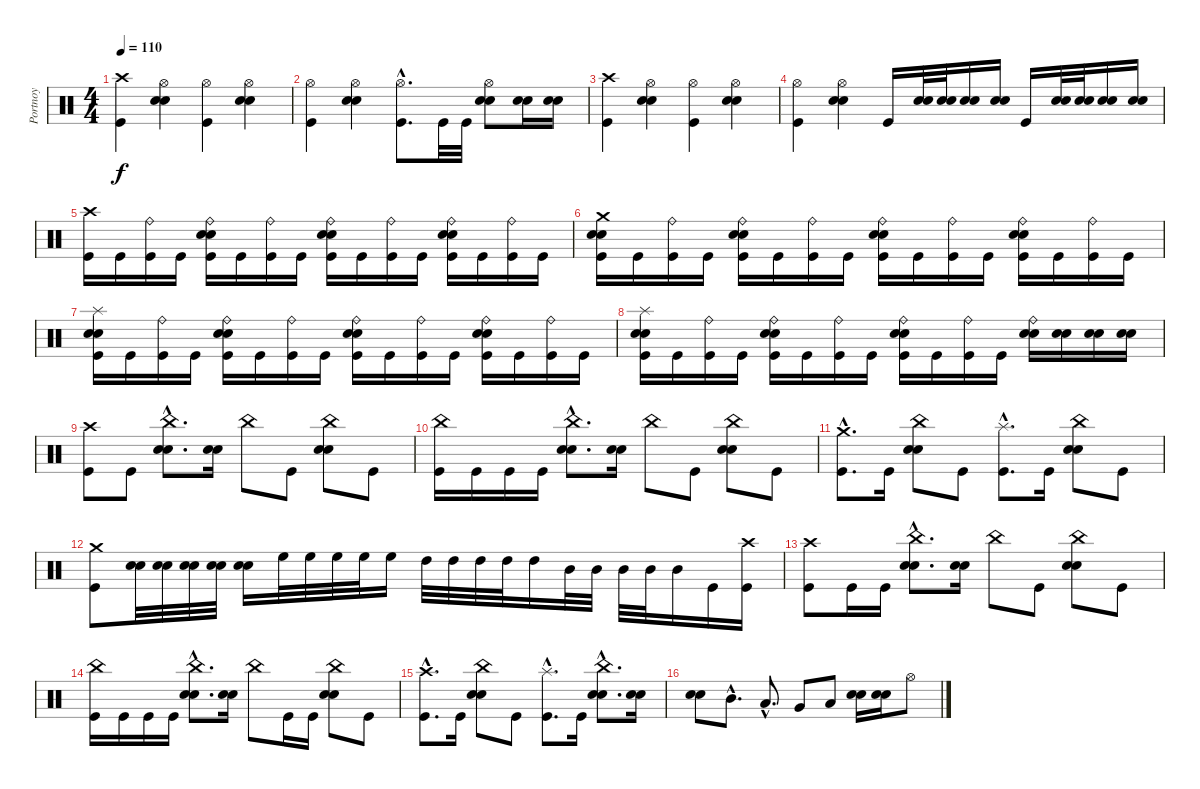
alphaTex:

\track ("Portnoy" "Portnoy") {instrument percussion}
\staff {score}
\articulation defaults
\ts (4 4)
\tempo 110
\clef neutral
\ks c
("Crash high (hit)" "Kick (hit)").4{dy f} ("Hi-Hat (open)" "Snare (hit) 2" "Electric Snare (hit)").4 ("Hi-Hat (open)" "Kick (hit)").4 ("Hi-Hat (open)" "Snare (hit) 2" "Electric Snare (hit)").4 |
("Hi-Hat (open)" "Kick (hit)").4 ("Hi-Hat (open)" "Snare (hit) 2" "Electric Snare (hit)").4 ("Hi-Hat (open)"{hac} "Kick (hit)"{hac}).8{d} "Kick (hit)".32 "Kick (hit)".32 ("Hi-Hat (open)" "Snare (hit) 2" "Electric Snare (hit)").8 ("Snare (hit) 2" "Electric Snare (hit)").16 ("Snare (hit) 2" "Electric Snare (hit)").16 |
("Crash high (hit)" "Kick (hit)").4 ("Hi-Hat (open)" "Snare (hit) 2" "Electric Snare (hit)").4 ("Hi-Hat (open)" "Kick (hit)").4 ("Hi-Hat (open)" "Snare (hit) 2" "Electric Snare (hit)").4 |
("Hi-Hat (open)" "Kick (hit)").4 ("Hi-Hat (open)" "Snare (hit) 2" "Electric Snare (hit)").4 "Kick (hit)".16 ("Snare (hit) 2" "Electric Snare (hit)").32 ("Snare (hit) 2" "Electric Snare (hit)").32 ("Snare (hit) 2" "Electric Snare (hit)").16 ("Snare (hit) 2" "Electric Snare (hit)").16 "Kick (hit)".16 ("Snare (hit) 2" "Electric Snare (hit)").32 ("Snare (hit) 2" "Electric Snare (hit)").32 ("Snare (hit) 2" "Electric Snare (hit)").16 ("Snare (hit) 2" "Electric Snare (hit)").16 |
("Crash high (hit)" "Kick (hit)").16 "Kick (hit)".16 ("Ride (bell)" "Kick (hit)").16 "Kick (hit)".16 ("Ride (bell)" "Snare (hit) 2" "Electric Snare (hit)" "Kick (hit)").16 "Kick (hit)".16 ("Ride (bell)" "Kick (hit)").16 "Kick (hit)".16 ("Ride (bell)" "Snare (hit) 2" "Electric Snare (hit)" "Kick (hit)").16 "Kick (hit)".16 ("Ride (bell)" "Kick (hit)").16 "Kick (hit)".16 ("Ride (bell)" "Snare (hit) 2" "Electric Snare (hit)" "Kick (hit)").16 "Kick (hit)".16 ("Ride (bell)" "Kick (hit)").16 "Kick (hit)".16 |
("Crash medium (hit)" "Snare (hit) 2" "Electric Snare (hit)" "Kick (hit)").16 "Kick (hit)".16 ("Ride (bell)" "Kick (hit)").16 "Kick (hit)".16 ("Ride (bell)" "Snare (hit) 2" "Electric Snare (hit)" "Kick (hit)").16 "Kick (hit)".16 ("Ride (bell)" "Kick (hit)").16 "Kick (hit)".16 ("Ride (bell)" "Snare (hit) 2" "Electric Snare (hit)" "Kick (hit)").16 "Kick (hit)".16 ("Ride (bell)" "Kick (hit)").16 "Kick (hit)".16 ("Ride (bell)" "Snare (hit) 2" "Electric Snare (hit)" "Kick (hit)").16 "Kick (hit)".16 ("Ride (bell)" "Kick (hit)").16 "Kick (hit)".16 |
("Splash (hit)" "Snare (hit) 2" "Electric Snare (hit)" "Kick (hit)").16 "Kick (hit)".16 ("Ride (bell)" "Kick (hit)").16 "Kick (hit)".16 ("Ride (bell)" "Snare (hit) 2" "Electric Snare (hit)" "Kick (hit)").16 "Kick (hit)".16 ("Ride (bell)" "Kick (hit)").16 "Kick (hit)".16 ("Ride (bell)" "Snare (hit) 2" "Electric Snare (hit)" "Kick (hit)").16 "Kick (hit)".16 ("Ride (bell)" "Kick (hit)").16 "Kick (hit)".16 ("Ride (bell)" "Snare (hit) 2" "Electric Snare (hit)" "Kick (hit)").16 "Kick (hit)".16 ("Ride (bell)" "Kick (hit)").16 "Kick (hit)".16 |
("Splash (hit)" "Snare (hit) 2" "Electric Snare (hit)" "Kick (hit)").16 "Kick (hit)".16 ("Ride (bell)" "Kick (hit)").16 "Kick (hit)".16 ("Ride (bell)" "Snare (hit) 2" "Electric Snare (hit)" "Kick (hit)").16 "Kick (hit)".16 ("Ride (bell)" "Kick (hit)").16 "Kick (hit)".16 ("Ride (bell)" "Snare (hit) 2" "Electric Snare (hit)" "Kick (hit)").16 "Kick (hit)".16 ("Ride (bell)" "Kick (hit)").16 "Kick (hit)".16 ("Ride (bell)" "Snare (hit) 2" "Electric Snare (hit)").16 ("Snare (hit) 2" "Electric Snare (hit)").16 ("Snare (hit) 2" "Electric Snare (hit)").16 ("Snare (hit) 2" "Electric Snare (hit)").16 |
("Crash high (hit)" "Kick (hit)").8 "Kick (hit)".8 ("China (hit)"{hac} "Snare (hit) 2"{hac} "Electric Snare (hit)"{hac}).8{d} ("Snare (hit) 2" "Electric Snare (hit)").16 "China (hit)".8 "Kick (hit)".8 ("China (hit)" "Snare (hit) 2" "Electric Snare (hit)").8 "Kick (hit)".8 |
("China (hit)" "Kick (hit)").16 "Kick (hit)".16 "Kick (hit)".16 "Kick (hit)".16 ("China (hit)"{hac} "Snare (hit) 2"{hac} "Electric Snare (hit)"{hac}).8{d} ("Snare (hit) 2" "Electric Snare (hit)").16 "China (hit)".8 "Kick (hit)".8 ("China (hit)" "Snare (hit) 2" "Electric Snare (hit)").8 "Kick (hit)".8 |
("Crash medium (hit)"{hac} "Kick (hit)"{hac}).8{d} "Kick (hit)".16 ("China (hit)" "Snare (hit) 2" "Electric Snare (hit)").8 "Kick (hit)".8 ("Splash (hit)"{hac} "Kick (hit)"{hac}).8{d} "Kick (hit)".16 ("China (hit)" "Snare (hit) 2" "Electric Snare (hit)").8 "Kick (hit)".8 |
("Crash medium (hit)" "Kick (hit)").8 ("Snare (hit) 2" "Electric Snare (hit)").32 ("Snare (hit) 2" "Electric Snare (hit)").32 ("Snare (hit) 2" "Electric Snare (hit)").32 ("Snare (hit) 2" "Electric Snare (hit)").32 ("Snare (hit) 2" "Electric Snare (hit)").16 "High Floor Tom (hit)".32 "High Floor Tom (hit)".32 "High Floor Tom (hit)".32 "High Floor Tom (hit)".32 "High Floor Tom (hit)".16 "High Tom (hit)".32 "High Tom (hit)".32 "High Tom (hit)".32 "High Tom (hit)".32 "High Tom (hit)".16 "Mid Tom (hit)".32 "Mid Tom (hit)".32 "Mid Tom (hit)".32 "Mid Tom (hit)".32 "Mid Tom (hit)".16 "Kick (hit)".16 ("Crash high (hit)" "Kick (hit)").16 |
("Crash high (hit)" "Kick (hit)").8 "Kick (hit)".16 "Kick (hit)".16 ("China (hit)"{hac} "Snare (hit) 2"{hac} "Electric Snare (hit)"{hac}).8{d} ("Snare (hit) 2" "Electric Snare (hit)").16 "China (hit)".8 "Kick (hit)".8 ("China (hit)" "Snare (hit) 2" "Electric Snare (hit)").8 "Kick (hit)".8 |
("China (hit)" "Kick (hit)").16 "Kick (hit)".16 "Kick (hit)".16 "Kick (hit)".16 ("China (hit)"{hac} "Snare (hit) 2"{hac} "Electric Snare (hit)"{hac}).8{d} ("Snare (hit) 2" "Electric Snare (hit)").16 "China (hit)".8 "Kick (hit)".16 "Kick (hit)".16 ("China (hit)" "Snare (hit) 2" "Electric Snare (hit)").8 "Kick (hit)".8 |
("Crash high (hit)"{hac} "Kick (hit)"{hac}).8{d} "Kick (hit)".16 ("China (hit)" "Snare (hit) 2" "Electric Snare (hit)").8 "Kick (hit)".8 ("Splash (hit)"{hac} "Kick (hit)"{hac}).8{d} "Kick (hit)".16 ("China (hit)"{hac} "Snare (hit) 2"{hac} "Electric Snare (hit)"{hac}).8{d} ("Snare (hit) 2" "Electric Snare (hit)").16 |
("Snare (hit) 2" "Electric Snare (hit)").8 "Mid Tom (hit)"{hac}.8{d} "Low Tom (hit)"{hac}.8{d} "Very Low Tom (hit)".8 "Low Floor Tom (hit)".8 ("Snare (hit) 2" "Electric Snare (hit)").16 ("Snare (hit) 2" "Electric Snare (hit)").16 "Hi-Hat (open)".8
